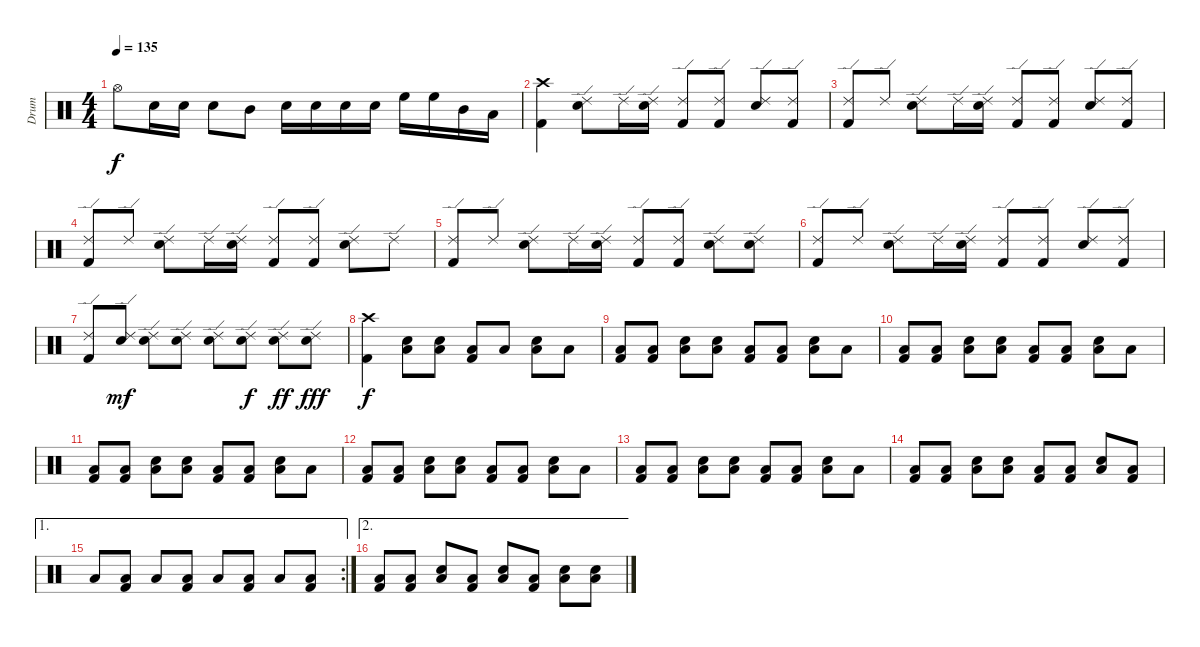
\track ("Drum" "Drum") {instrument percussion}
\staff {score}
\articulation defaults
\ts (4 4)
\tempo 135
\clef neutral
\ks c "Hi-Hat (open)".8{dy f} "Snare (hit) 2".16 "Snare (hit) 2".16 "Snare (hit) 2".8 "Mid Tom (hit)".8 "Snare (hit) 2".16 "Snare (hit) 2".16 "Snare (hit) 2".16 "Snare (hit) 2".16 "High Floor Tom (hit)".16 "High Floor Tom (hit)".16 "Mid Tom (hit)".16 "Low Tom (hit)".16
|
("Kick (hit) 2" "Crash high (hit)").4 ("Ride (edge) 2" "Snare (hit) 2").8 "Ride (edge) 2".16 ("Ride (edge) 2" "Snare (hit) 2").16 ("Kick (hit) 2" "Ride (edge) 2").8 ("Kick (hit) 2" "Ride (edge) 2").8 ("Ride (edge) 2" "Snare (hit) 2").8 ("Kick (hit) 2" "Ride (edge) 2").8 |
("Kick (hit) 2" "Ride (edge) 2").8 "Ride (edge) 2".8 ("Ride (edge) 2" "Snare (hit) 2").8 "Ride (edge) 2".16 ("Ride (edge) 2" "Snare (hit) 2").16 ("Kick (hit) 2" "Ride (edge) 2").8 ("Kick (hit) 2" "Ride (edge) 2").8 ("Ride (edge) 2" "Snare (hit) 2").8 ("Kick (hit) 2" "Ride (edge) 2").8 |
("Kick (hit) 2" "Ride (edge) 2").8 "Ride (edge) 2".8 ("Ride (edge) 2" "Snare (hit) 2").8 "Ride (edge) 2".16 ("Ride (edge) 2" "Snare (hit) 2").16 ("Kick (hit) 2" "Ride (edge) 2").8 ("Kick (hit) 2" "Ride (edge) 2").8 ("Ride (edge) 2" "Snare (hit) 2").8 "Ride (edge) 2".8 |
("Kick (hit) 2" "Ride (edge) 2").8 "Ride (edge) 2".8 ("Ride (edge) 2" "Snare (hit) 2").8 "Ride (edge) 2".16 ("Ride (edge) 2" "Snare (hit) 2").16 ("Kick (hit) 2" "Ride (edge) 2").8 ("Kick (hit) 2" "Ride (edge) 2").8 ("Ride (edge) 2" "Snare (hit) 2").8 ("Ride (edge) 2" "Snare (hit) 2").8 |
("Kick (hit) 2" "Ride (edge) 2").8 "Ride (edge) 2".8 ("Ride (edge) 2" "Snare (hit) 2").8 "Ride (edge) 2".16 ("Ride (edge) 2" "Snare (hit) 2").16 ("Kick (hit) 2" "Ride (edge) 2").8 ("Kick (hit) 2" "Ride (edge) 2").8 ("Ride (edge) 2" "Snare (hit) 2").8 ("Kick (hit) 2" "Ride (edge) 2").8 |
("Kick (hit) 2" "Ride (edge) 2").8 ("Ride (edge) 2" "Snare (hit) 2").8{dy mf} ("Ride (edge) 2" "Snare (hit) 2").8 ("Ride (edge) 2" "Snare (hit) 2").8 ("Ride (edge) 2" "Snare (hit) 2").8 ("Ride (edge) 2" "Snare (hit) 2").8{dy f} ("Ride (edge) 2" "Snare (hit) 2").8{dy ff} ("Ride (edge) 2" "Snare (hit) 2").8{dy fff} |
("Kick (hit) 2" "Crash high (hit)").4{dy f} ("Snare (hit) 2" "Low Tom (hit)").8 ("Snare (hit) 2" "Low Tom (hit)").8 ("Kick (hit) 2" "Low Tom (hit)").8 "Low Tom (hit)".8 ("Snare (hit) 2" "Low Tom (hit)").8 "Low Tom (hit)".8 |
("Kick (hit) 2" "Low Tom (hit)").8 ("Kick (hit) 2" "Low Tom (hit)").8 ("Snare (hit) 2" "Low Tom (hit)").8 ("Snare (hit) 2" "Low Tom (hit)").8 ("Kick (hit) 2" "Low Tom (hit)").8 ("Kick (hit) 2" "Low Tom (hit)").8 ("Snare (hit) 2" "Low Tom (hit)").8 "Low Tom (hit)".8 |
("Kick (hit) 2" "Low Tom (hit)").8 ("Kick (hit) 2" "Low Tom (hit)").8 ("Snare (hit) 2" "Low Tom (hit)").8 ("Snare (hit) 2" "Low Tom (hit)").8 ("Kick (hit) 2" "Low Tom (hit)").8 ("Kick (hit) 2" "Low Tom (hit)").8 ("Snare (hit) 2" "Low Tom (hit)").8 "Low Tom (hit)".8 |
("Kick (hit) 2" "Low Tom (hit)").8 ("Kick (hit) 2" "Low Tom (hit)").8 ("Snare (hit) 2" "Low Tom (hit)").8 ("Snare (hit) 2" "Low Tom (hit)").8 ("Kick (hit) 2" "Low Tom (hit)").8 ("Kick (hit) 2" "Low Tom (hit)").8 ("Snare (hit) 2" "Low Tom (hit)").8 "Low Tom (hit)".8 |
("Kick (hit) 2" "Low Tom (hit)").8 ("Kick (hit) 2" "Low Tom (hit)").8 ("Snare (hit) 2" "Low Tom (hit)").8 ("Snare (hit) 2" "Low Tom (hit)").8 ("Kick (hit) 2" "Low Tom (hit)").8 ("Kick (hit) 2" "Low Tom (hit)").8 ("Snare (hit) 2" "Low Tom (hit)").8 "Low Tom (hit)".8 |
("Kick (hit) 2" "Low Tom (hit)").8 ("Kick (hit) 2" "Low Tom (hit)").8 ("Snare (hit) 2" "Low Tom (hit)").8 ("Snare (hit) 2" "Low Tom (hit)").8 ("Kick (hit) 2" "Low Tom (hit)").8 ("Kick (hit) 2" "Low Tom (hit)").8 ("Snare (hit) 2" "Low Tom (hit)").8 "Low Tom (hit)".8 |
("Kick (hit) 2" "Low Tom (hit)").8 ("Kick (hit) 2" "Low Tom (hit)").8 ("Snare (hit) 2" "Low Tom (hit)").8 ("Snare (hit) 2" "Low Tom (hit)").8 ("Kick (hit) 2" "Low Tom (hit)").8 ("Kick (hit) 2" "Low Tom (hit)").8 ("Snare (hit) 2" "Low Tom (hit)").8 ("Kick (hit) 2" "Low Tom (hit)").8 |
\ae 1
\rc 2 "Low Tom (hit)".8
("Kick (hit) 2" "Low Tom (hit)").8 "Low Tom (hit)".8 ("Kick (hit) 2" "Low Tom (hit)").8 "Low Tom (hit)".8 ("Kick (hit) 2" "Low Tom (hit)").8 "Low Tom (hit)".8 ("Kick (hit) 2" "Low Tom (hit)").8 |
\ae 2
("Kick (hit) 2" "Low Tom (hit)").8 ("Kick (hit) 2" "Low Tom (hit)").8 ("Snare (hit) 2" "Low Tom (hit)").8 ("Kick (hit) 2" "Low Tom (hit)").8 ("Snare (hit) 2" "Low Tom (hit)").8 ("Kick (hit) 2" "Low Tom (hit)").8 ("Snare (hit) 2" "Low Tom (hit)").8 ("Snare (hit) 2" "Low Tom (hit)").8
